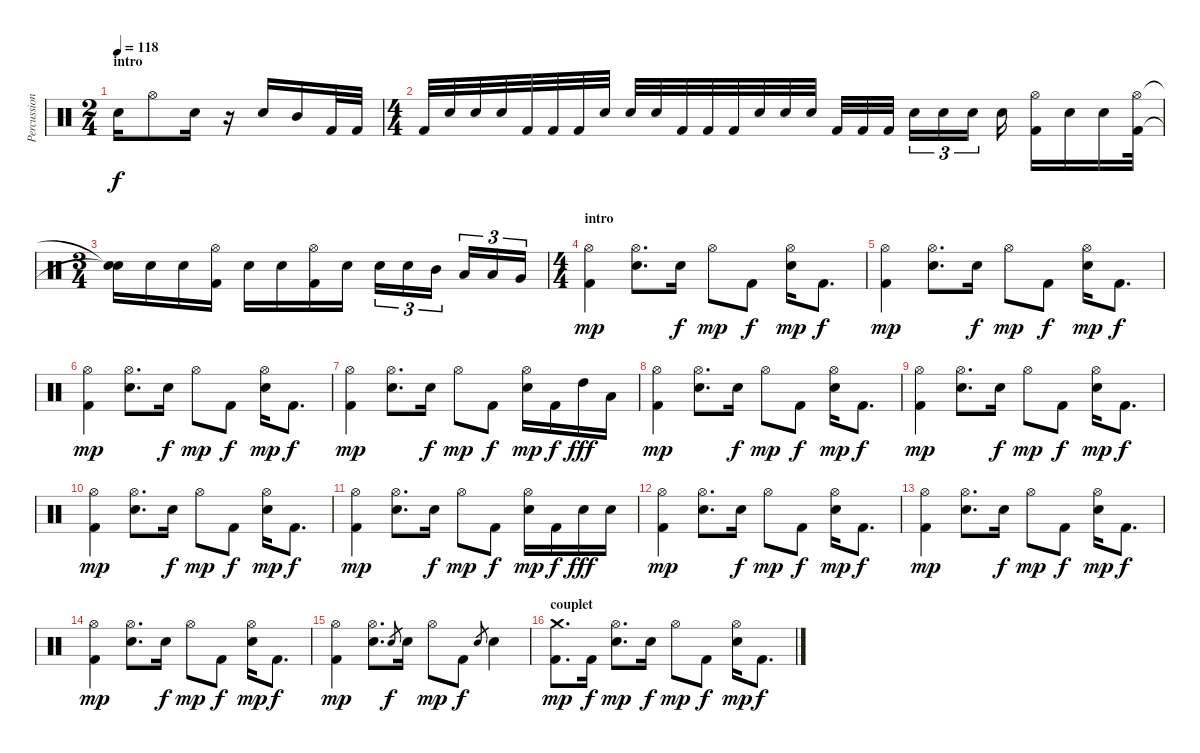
\track ("Percussions" "Percussion") {instrument percussion}
\staff {score}
\articulation defaults
\ts (2 4)
\section ("" "intro")
\tempo 118
\clef neutral
\ks c "Snare (hit) 2".16{dy f} "Hi-Hat (open)".8 "Snare (hit) 2".16
r.16 "Snare (hit) 2".16 "Mid Tom (hit)".16 "Kick (hit) 2".32 "Kick (hit) 2".32 |
\ts (4 4)
"Kick (hit) 2".32 "Snare (hit) 2".32 "Snare (hit) 2".32 "Snare (hit) 2".32 "Kick (hit) 2".32 "Kick (hit) 2".32 "Kick (hit) 2".32 "Snare (hit) 2".32 "Snare (hit) 2".32 "Snare (hit) 2".32 "Kick (hit) 2".32 "Kick (hit) 2".32 "Kick (hit) 2".32 "Snare (hit) 2".32 "Snare (hit) 2".32 "Snare (hit) 2".32 "Kick (hit) 2".32 "Kick (hit) 2".32 "Kick (hit) 2".32 "Snare (hit) 2".16{tu (3 2)} "Snare (hit) 2".16{tu (3 2)} "Snare (hit) 2".16{tu (3 2)} "Snare (hit) 2".16 ("Hi-Hat (open)" "Kick (hit) 2").16 "Snare (hit) 2".16 "Snare (hit) 2".16 ("Hi-Hat (open)" "Kick (hit) 2").32 |
\ts (3 4)
("Snare (hit)"{t} "Snare (hit)"{t}).16 "Snare (hit) 2".16 "Snare (hit) 2".16 ("Hi-Hat (open)" "Kick (hit) 2").16 "Snare (hit) 2".16 "Snare (hit) 2".16 ("Hi-Hat (open)" "Kick (hit) 2").16 "Snare (hit) 2".16 "Snare (hit) 2".16{tu (3 2)} "Snare (hit) 2".16{tu (3 2)} "Mid Tom (hit)".16{tu (3 2)} "Low Tom (hit)".16{tu (3 2)} "Low Tom (hit)".16{tu (3 2)} "Very Low Tom (hit)".16{tu (3 2)} |
\ts (4 4)
\section ("" "intro")
("Hi-Hat (open)" "Kick (hit) 2").4{dy mp} ("Hi-Hat (open)" "Snare (hit) 2").8{d} "Snare (hit) 2".16{dy f} "Hi-Hat (open)".8{dy mp} "Kick (hit) 2".8{dy f} ("Hi-Hat (open)" "Snare (hit) 2").16{dy mp} "Kick (hit) 2".8{d dy f} |
("Hi-Hat (open)" "Kick (hit) 2").4{dy mp} ("Hi-Hat (open)" "Snare (hit) 2").8{d} "Snare (hit) 2".16{dy f} "Hi-Hat (open)".8{dy mp} "Kick (hit) 2".8{dy f} ("Hi-Hat (open)" "Snare (hit) 2").16{dy mp} "Kick (hit) 2".8{d dy f} |
("Hi-Hat (open)" "Kick (hit) 2").4{dy mp} ("Hi-Hat (open)" "Snare (hit) 2").8{d} "Snare (hit) 2".16{dy f} "Hi-Hat (open)".8{dy mp} "Kick (hit) 2".8{dy f} ("Hi-Hat (open)" "Snare (hit) 2").16{dy mp} "Kick (hit) 2".8{d dy f} |
("Hi-Hat (open)" "Kick (hit) 2").4{dy mp} ("Hi-Hat (open)" "Snare (hit) 2").8{d} "Snare (hit) 2".16{dy f} "Hi-Hat (open)".8{dy mp} "Kick (hit) 2".8{dy f} ("Hi-Hat (open)" "Snare (hit) 2").16{dy mp} "Kick (hit) 2".16{dy f} "High Tom (hit)".16{dy fff} "Low Tom (hit)".16 |
("Hi-Hat (open)" "Kick (hit) 2").4{dy mp} ("Hi-Hat (open)" "Snare (hit) 2").8{d} "Snare (hit) 2".16{dy f} "Hi-Hat (open)".8{dy mp} "Kick (hit) 2".8{dy f} ("Hi-Hat (open)" "Snare (hit) 2").16{dy mp} "Kick (hit) 2".8{d dy f} |
("Hi-Hat (open)" "Kick (hit) 2").4{dy mp} ("Hi-Hat (open)" "Snare (hit) 2").8{d} "Snare (hit) 2".16{dy f} "Hi-Hat (open)".8{dy mp} "Kick (hit) 2".8{dy f} ("Hi-Hat (open)" "Snare (hit) 2").16{dy mp} "Kick (hit) 2".8{d dy f} |
("Hi-Hat (open)" "Kick (hit) 2").4{dy mp} ("Hi-Hat (open)" "Snare (hit) 2").8{d} "Snare (hit) 2".16{dy f} "Hi-Hat (open)".8{dy mp} "Kick (hit) 2".8{dy f} ("Hi-Hat (open)" "Snare (hit) 2").16{dy mp} "Kick (hit) 2".8{d dy f} |
("Hi-Hat (open)" "Kick (hit) 2").4{dy mp} ("Hi-Hat (open)" "Snare (hit) 2").8{d} "Snare (hit) 2".16{dy f} "Hi-Hat (open)".8{dy mp} "Kick (hit) 2".8{dy f} ("Hi-Hat (open)" "Snare (hit) 2").16{dy mp} "Kick (hit) 2".16{dy f} "Snare (hit) 2".16{dy fff} "Snare (hit) 2".16 |
("Hi-Hat (open)" "Kick (hit) 2").4{dy mp} ("Hi-Hat (open)" "Snare (hit) 2").8{d} "Snare (hit) 2".16{dy f} "Hi-Hat (open)".8{dy mp} "Kick (hit) 2".8{dy f} ("Hi-Hat (open)" "Snare (hit) 2").16{dy mp} "Kick (hit) 2".8{d dy f} |
("Hi-Hat (open)" "Kick (hit) 2").4{dy mp} ("Hi-Hat (open)" "Snare (hit) 2").8{d} "Snare (hit) 2".16{dy f} "Hi-Hat (open)".8{dy mp} "Kick (hit) 2".8{dy f} ("Hi-Hat (open)" "Snare (hit) 2").16{dy mp} "Kick (hit) 2".8{d dy f} |
("Hi-Hat (open)" "Kick (hit) 2").4{dy mp} ("Hi-Hat (open)" "Snare (hit) 2").8{d} "Snare (hit) 2".16{dy f} "Hi-Hat (open)".8{dy mp} "Kick (hit) 2".8{dy f} ("Hi-Hat (open)" "Snare (hit) 2").16{dy mp} "Kick (hit) 2".8{d dy f} |
("Hi-Hat (open)" "Kick (hit) 2").4{dy mp} ("Hi-Hat (open)" "Snare (hit) 2").8{d} "Snare (hit) 2".8{gr dy f} "Snare (hit) 2".16 "Hi-Hat (open)".8{dy mp} "Kick (hit) 2".8{dy f} "Snare (hit) 2".8{gr} "Snare (hit) 2".4 |
\section ("" "couplet")
("Crash medium (hit)" "Kick (hit) 2").8{d dy mp} "Kick (hit) 2".16{dy f} ("Hi-Hat (open)" "Snare (hit) 2").8{d dy mp} "Electric Snare (hit)".16{dy f} "Hi-Hat (open)".8{dy mp} "Kick (hit) 2".8{dy f} ("Hi-Hat (open)" "Snare (hit) 2").16{dy mp} "Kick (hit) 2".8{d dy f}
